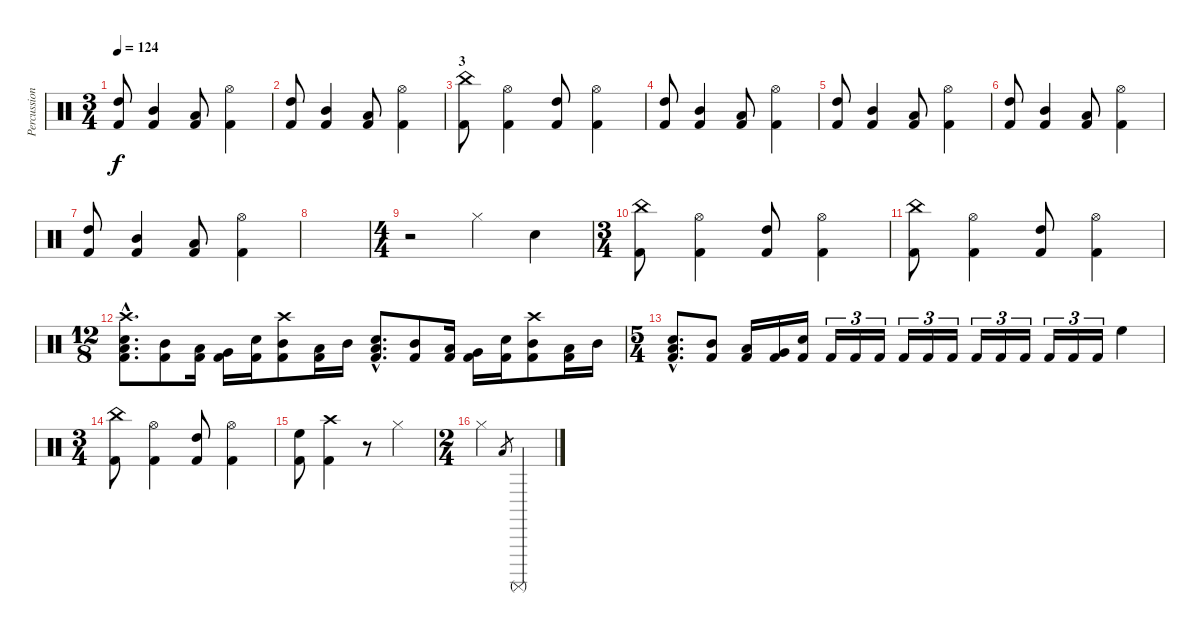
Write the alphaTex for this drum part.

\track ("Percussion" "Percussion") {instrument percussion}
\staff {score}
\articulation defaults
\ts (3 4)
\tempo 124
\clef neutral
\ks c
("High Tom (hit)" "Kick (hit) 2").8{dy f} ("Mid Tom (hit)" "Kick (hit) 2").4 ("Low Tom (hit)" "Kick (hit) 2").8 ("Hi-Hat (open)" "Kick (hit) 2").4 |
("High Tom (hit)" "Kick (hit) 2").8 ("Mid Tom (hit)" "Kick (hit) 2").4 ("Low Tom (hit)" "Kick (hit) 2").8 ("Hi-Hat (open)" "Kick (hit) 2").4 |
\section ("" "3")
("China (hit)" "Kick (hit) 2").8 ("Hi-Hat (open)" "Kick (hit) 2").4 ("High Tom (hit)" "Kick (hit) 2").8 ("Hi-Hat (open)" "Kick (hit) 2").4 |
("High Tom (hit)" "Kick (hit) 2").8 ("Mid Tom (hit)" "Kick (hit) 2").4 ("Low Tom (hit)" "Kick (hit) 2").8 ("Hi-Hat (open)" "Kick (hit) 2").4 |
("High Tom (hit)" "Kick (hit) 2").8 ("Mid Tom (hit)" "Kick (hit) 2").4 ("Low Tom (hit)" "Kick (hit) 2").8 ("Hi-Hat (open)" "Kick (hit) 2").4 |
("High Tom (hit)" "Kick (hit) 2").8 ("Mid Tom (hit)" "Kick (hit) 2").4 ("Low Tom (hit)" "Kick (hit) 2").8 ("Hi-Hat (open)" "Kick (hit) 2").4 |
("High Tom (hit)" "Kick (hit) 2").8 ("Mid Tom (hit)" "Kick (hit) 2").4 ("Low Tom (hit)" "Kick (hit) 2").8 ("Hi-Hat (open)" "Kick (hit) 2").4 |
|
\ts (4 4)
r.2 "Hi-Hat (closed)".4 "Electric Snare (hit)".4 |
\ts (3 4)
("China (hit)" "Kick (hit) 2").8 ("Hi-Hat (open)" "Kick (hit) 2").4 ("High Tom (hit)" "Kick (hit) 2").8 ("Hi-Hat (open)" "Kick (hit) 2").4 |
("China (hit)" "Kick (hit) 2").8 ("Hi-Hat (open)" "Kick (hit) 2").4 ("High Tom (hit)" "Kick (hit) 2").8 ("Hi-Hat (open)" "Kick (hit) 2").4 |
\ts (12 8)
("Crash high (hit)"{hac} "Electric Snare (hit)"{hac} "Low Tom (hit)" "Kick (hit) 2"{hac}).8{d} ("Mid Tom (hit)" "Kick (hit) 2").8 ("Low Tom (hit)" "Kick (hit) 2").16 ("Very Low Tom (hit)" "Kick (hit) 2").16 ("Electric Snare (hit)" "Kick (hit) 2").16 ("Crash high (hit)" "Mid Tom (hit)" "Kick (hit) 2").8 ("Low Tom (hit)" "Kick (hit) 2").16 "Mid Tom (hit)".16 ("Electric Snare (hit)"{hac} "Low Tom (hit)"{hac} "Kick (hit) 2"{hac}).8{d} ("Mid Tom (hit)" "Kick (hit) 2").8 ("Low Tom (hit)" "Kick (hit) 2").16 ("Very Low Tom (hit)" "Kick (hit) 2").16 ("Electric Snare (hit)" "Kick (hit) 2").16 ("Crash high (hit)" "Mid Tom (hit)" "Kick (hit) 2").8 ("Low Tom (hit)" "Kick (hit) 2").16 "Mid Tom (hit)".16 |
\ts (5 4)
("Electric Snare (hit)"{hac} "Low Tom (hit)" "Kick (hit) 2"{hac}).8{d} ("Mid Tom (hit)" "Kick (hit) 2").8 ("Low Tom (hit)" "Kick (hit) 2").16 ("Very Low Tom (hit)" "Kick (hit) 2").16 ("Electric Snare (hit)" "Kick (hit) 2").16 "Kick (hit) 2".16{tu (3 2)} "Kick (hit) 2".16{tu (3 2)} "Kick (hit) 2".16{tu (3 2)} "Kick (hit) 2".16{tu (3 2)} "Kick (hit) 2".16{tu (3 2)} "Kick (hit) 2".16{tu (3 2)} "Kick (hit) 2".16{tu (3 2)} "Kick (hit) 2".16{tu (3 2)} "Kick (hit) 2".16{tu (3 2)} "Kick (hit) 2".16{tu (3 2)} "Kick (hit) 2".16{tu (3 2)} "Kick (hit) 2".16{tu (3 2)} "High Floor Tom (hit)".4 |
\ts (3 4)
("China (hit)" "Kick (hit) 2").8 ("Hi-Hat (open)" "Kick (hit) 2").4 ("High Tom (hit)" "Kick (hit) 2").8 ("Hi-Hat (open)" "Kick (hit) 2").4 |
("High Floor Tom (hit)" "Kick (hit) 2").8 ("Crash high (hit)" "Kick (hit) 2").4 r.8 "Hi-Hat (closed)".4 |
\ts (2 4)
"Hi-Hat (closed)".4 "Low Tom (hit)".8{gr} "Surdo (mute)".4
